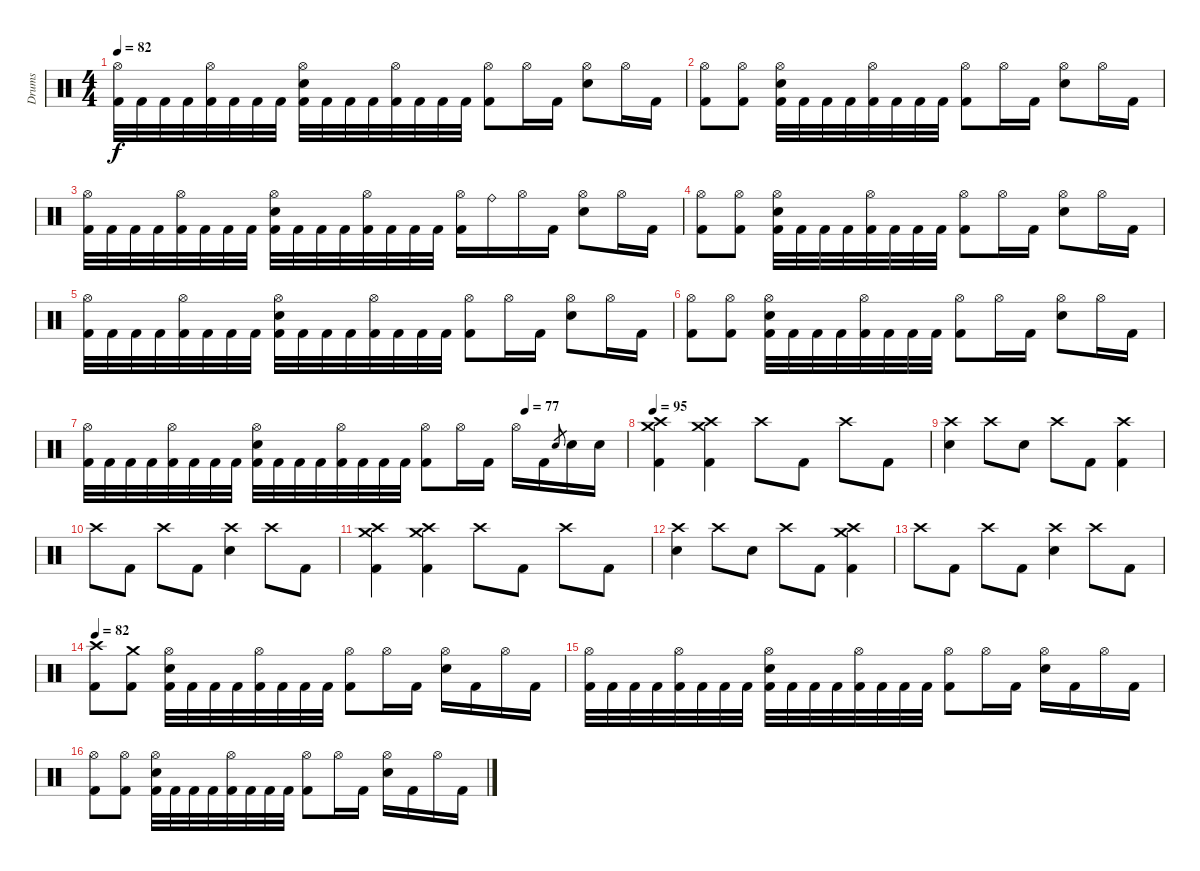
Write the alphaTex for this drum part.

\track ("Drums" "Drums") {instrument percussion}
\staff {score}
\articulation defaults
\ts (4 4)
\tempo 82
\clef neutral
\ks c
("Hi-Hat (open)" "Kick (hit) 2").32{dy f} "Kick (hit) 2".32 "Kick (hit) 2".32 "Kick (hit) 2".32 ("Hi-Hat (open)" "Kick (hit) 2").32 "Kick (hit) 2".32 "Kick (hit) 2".32 "Kick (hit) 2".32 ("Electric Snare (hit)" "Hi-Hat (open)" "Kick (hit) 2").32 "Kick (hit) 2".32 "Kick (hit) 2".32 "Kick (hit) 2".32 ("Hi-Hat (open)" "Kick (hit) 2").32 "Kick (hit) 2".32 "Kick (hit) 2".32 "Kick (hit) 2".32 ("Hi-Hat (open)" "Kick (hit) 2").8 "Hi-Hat (open)".16 "Kick (hit) 2".16 ("Hi-Hat (open)" "Electric Snare (hit)").8 "Hi-Hat (open)".16 "Kick (hit) 2".16 |
("Hi-Hat (open)" "Kick (hit) 2").8 ("Hi-Hat (open)" "Kick (hit) 2").8 ("Hi-Hat (open)" "Electric Snare (hit)" "Kick (hit) 2").32 "Kick (hit) 2".32 "Kick (hit) 2".32 "Kick (hit) 2".32 ("Hi-Hat (open)" "Kick (hit) 2").32 "Kick (hit) 2".32 "Kick (hit) 2".32 "Kick (hit) 2".32 ("Hi-Hat (open)" "Kick (hit) 2").8 "Hi-Hat (open)".16 "Kick (hit) 2".16 ("Hi-Hat (open)" "Electric Snare (hit)").8 "Hi-Hat (open)".16 "Kick (hit) 2".16 |
("Hi-Hat (open)" "Kick (hit) 2").32 "Kick (hit) 2".32 "Kick (hit) 2".32 "Kick (hit) 2".32 ("Hi-Hat (open)" "Kick (hit) 2").32 "Kick (hit) 2".32 "Kick (hit) 2".32 "Kick (hit) 2".32 ("Electric Snare (hit)" "Hi-Hat (open)" "Kick (hit) 2").32 "Kick (hit) 2".32 "Kick (hit) 2".32 "Kick (hit) 2".32 ("Hi-Hat (open)" "Kick (hit) 2").32 "Kick (hit) 2".32 "Kick (hit) 2".32 "Kick (hit) 2".32 ("Hi-Hat (open)" "Kick (hit) 2").16 "Ride (bell)".16 "Hi-Hat (open)".16 "Kick (hit) 2".16 ("Hi-Hat (open)" "Electric Snare (hit)").8 "Hi-Hat (open)".16 "Kick (hit) 2".16 |
("Hi-Hat (open)" "Kick (hit) 2").8 ("Hi-Hat (open)" "Kick (hit) 2").8 ("Hi-Hat (open)" "Electric Snare (hit)" "Kick (hit) 2").32 "Kick (hit) 2".32 "Kick (hit) 2".32 "Kick (hit) 2".32 ("Hi-Hat (open)" "Kick (hit) 2").32 "Kick (hit) 2".32 "Kick (hit) 2".32 "Kick (hit) 2".32 ("Hi-Hat (open)" "Kick (hit) 2").8 "Hi-Hat (open)".16 "Kick (hit) 2".16 ("Hi-Hat (open)" "Electric Snare (hit)").8 "Hi-Hat (open)".16 "Kick (hit) 2".16 |
("Hi-Hat (open)" "Kick (hit) 2").32 "Kick (hit) 2".32 "Kick (hit) 2".32 "Kick (hit) 2".32 ("Hi-Hat (open)" "Kick (hit) 2").32 "Kick (hit) 2".32 "Kick (hit) 2".32 "Kick (hit) 2".32 ("Electric Snare (hit)" "Hi-Hat (open)" "Kick (hit) 2").32 "Kick (hit) 2".32 "Kick (hit) 2".32 "Kick (hit) 2".32 ("Hi-Hat (open)" "Kick (hit) 2").32 "Kick (hit) 2".32 "Kick (hit) 2".32 "Kick (hit) 2".32 ("Hi-Hat (open)" "Kick (hit) 2").8 "Hi-Hat (open)".16 "Kick (hit) 2".16 ("Hi-Hat (open)" "Electric Snare (hit)").8 "Hi-Hat (open)".16 "Kick (hit) 2".16 |
("Hi-Hat (open)" "Kick (hit) 2").8 ("Hi-Hat (open)" "Kick (hit) 2").8 ("Hi-Hat (open)" "Electric Snare (hit)" "Kick (hit) 2").32 "Kick (hit) 2".32 "Kick (hit) 2".32 "Kick (hit) 2".32 ("Hi-Hat (open)" "Kick (hit) 2").32 "Kick (hit) 2".32 "Kick (hit) 2".32 "Kick (hit) 2".32 ("Hi-Hat (open)" "Kick (hit) 2").8 "Hi-Hat (open)".16 "Kick (hit) 2".16 ("Hi-Hat (open)" "Electric Snare (hit)").8 "Hi-Hat (open)".16 "Kick (hit) 2".16 |
\tempo (77 0.8125)
("Hi-Hat (open)" "Kick (hit) 2").32 "Kick (hit) 2".32 "Kick (hit) 2".32 "Kick (hit) 2".32 ("Hi-Hat (open)" "Kick (hit) 2").32 "Kick (hit) 2".32 "Kick (hit) 2".32 "Kick (hit) 2".32 ("Electric Snare (hit)" "Hi-Hat (open)" "Kick (hit) 2").32 "Kick (hit) 2".32 "Kick (hit) 2".32 "Kick (hit) 2".32 ("Hi-Hat (open)" "Kick (hit) 2").32 "Kick (hit) 2".32 "Kick (hit) 2".32 "Kick (hit) 2".32 ("Hi-Hat (open)" "Kick (hit) 2").8 "Hi-Hat (open)".16 "Kick (hit) 2".16 "Hi-Hat (open)".16 "Kick (hit) 2".16 "Electric Snare (hit)".8{gr} "Electric Snare (hit)".16 "Electric Snare (hit)".16 |
\tempo 150
\tempo 95
("Crash medium (hit)" "Crash high (hit)" "Kick (hit) 2").4 ("Crash high (hit)" "Crash medium (hit)" "Kick (hit) 2").4 "Crash high (hit)".8 "Kick (hit) 2".8 "Crash high (hit)".8 "Kick (hit) 2".8 |
("Crash high (hit)" "Electric Snare (hit)").4 "Crash high (hit)".8 "Electric Snare (hit)".8 "Crash high (hit)".8 "Kick (hit) 2".8 ("Crash high (hit)" "Kick (hit) 2").4 |
"Crash high (hit)".8 "Kick (hit) 2".8 "Crash high (hit)".8 "Kick (hit) 2".8 ("Crash high (hit)" "Electric Snare (hit)").4 "Crash high (hit)".8 "Kick (hit) 2".8 |
("Crash medium (hit)" "Crash high (hit)" "Kick (hit) 2").4 ("Crash medium (hit)" "Crash high (hit)" "Kick (hit) 2").4 "Crash high (hit)".8 "Kick (hit) 2".8 "Crash high (hit)".8 "Kick (hit) 2".8 |
("Crash high (hit)" "Electric Snare (hit)").4 "Crash high (hit)".8 "Electric Snare (hit)".8 "Crash high (hit)".8 "Kick (hit) 2".8 ("Crash medium (hit)" "Crash high (hit)" "Kick (hit) 2").4 |
"Crash high (hit)".8 "Kick (hit) 2".8 "Crash high (hit)".8 "Kick (hit) 2".8 ("Crash high (hit)" "Electric Snare (hit)").4 "Crash high (hit)".8 "Kick (hit) 2".8 |
\tempo 82
("Crash high (hit)" "Kick (hit) 2").8 ("Crash medium (hit)" "Kick (hit) 2").8 ("Hi-Hat (open)" "Electric Snare (hit)" "Kick (hit) 2").32 "Kick (hit) 2".32 "Kick (hit) 2".32 "Kick (hit) 2".32 ("Hi-Hat (open)" "Kick (hit) 2").32 "Kick (hit) 2".32 "Kick (hit) 2".32 "Kick (hit) 2".32 ("Hi-Hat (open)" "Kick (hit) 2").8 "Hi-Hat (open)".16 "Kick (hit) 2".16 ("Hi-Hat (open)" "Electric Snare (hit)").16 "Kick (hit) 2".16 "Hi-Hat (open)".16 "Kick (hit) 2".16 |
("Hi-Hat (open)" "Kick (hit) 2").32 "Kick (hit) 2".32 "Kick (hit) 2".32 "Kick (hit) 2".32 ("Hi-Hat (open)" "Kick (hit) 2").32 "Kick (hit) 2".32 "Kick (hit) 2".32 "Kick (hit) 2".32 ("Electric Snare (hit)" "Hi-Hat (open)" "Kick (hit) 2").32 "Kick (hit) 2".32 "Kick (hit) 2".32 "Kick (hit) 2".32 ("Hi-Hat (open)" "Kick (hit) 2").32 "Kick (hit) 2".32 "Kick (hit) 2".32 "Kick (hit) 2".32 ("Hi-Hat (open)" "Kick (hit) 2").8 "Hi-Hat (open)".16 "Kick (hit) 2".16 ("Hi-Hat (open)" "Electric Snare (hit)").16 "Kick (hit) 2".16 "Hi-Hat (open)".16 "Kick (hit) 2".16 |
("Hi-Hat (open)" "Kick (hit) 2").8 ("Hi-Hat (open)" "Kick (hit) 2").8 ("Hi-Hat (open)" "Electric Snare (hit)" "Kick (hit) 2").32 "Kick (hit) 2".32 "Kick (hit) 2".32 "Kick (hit) 2".32 ("Hi-Hat (open)" "Kick (hit) 2").32 "Kick (hit) 2".32 "Kick (hit) 2".32 "Kick (hit) 2".32 ("Hi-Hat (open)" "Kick (hit) 2").8 "Hi-Hat (open)".16 "Kick (hit) 2".16 ("Hi-Hat (open)" "Electric Snare (hit)").16 "Kick (hit) 2".16 "Hi-Hat (open)".16 "Kick (hit) 2".16
